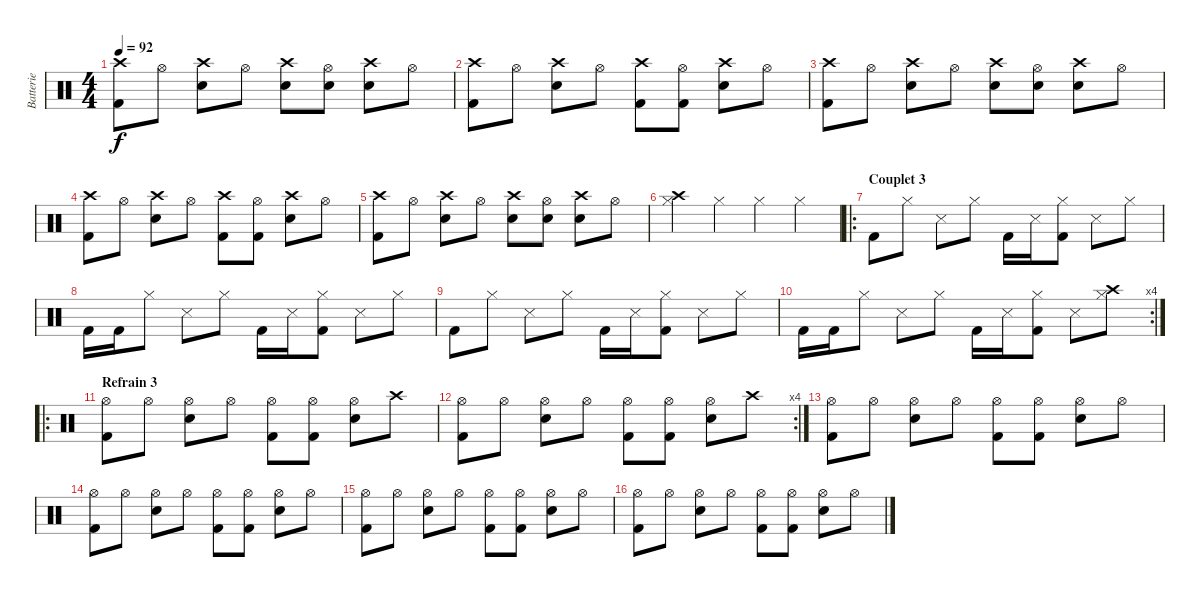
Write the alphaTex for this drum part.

\track ("Batterie" "Batterie") {instrument percussion}
\staff {score}
\articulation defaults
\ts (4 4)
\tempo 92
\clef neutral
\ks c
("Crash high (hit)" "Kick (hit) 2").8{dy f} "Hi-Hat (open)".8 ("Crash high (hit)" "Electric Snare (hit)").8 "Hi-Hat (open)".8 ("Crash high (hit)" "Electric Snare (hit)").8 ("Hi-Hat (open)" "Electric Snare (hit)").8 ("Crash high (hit)" "Electric Snare (hit)").8 "Hi-Hat (open)".8 |
("Crash high (hit)" "Kick (hit) 2").8 "Hi-Hat (open)".8 ("Crash high (hit)" "Electric Snare (hit)").8 "Hi-Hat (open)".8 ("Crash high (hit)" "Kick (hit) 2").8 ("Hi-Hat (open)" "Kick (hit) 2").8 ("Crash high (hit)" "Electric Snare (hit)").8 "Hi-Hat (open)".8 |
("Crash high (hit)" "Kick (hit) 2").8 "Hi-Hat (open)".8 ("Crash high (hit)" "Electric Snare (hit)").8 "Hi-Hat (open)".8 ("Crash high (hit)" "Electric Snare (hit)").8 ("Hi-Hat (open)" "Electric Snare (hit)").8 ("Crash high (hit)" "Electric Snare (hit)").8 "Hi-Hat (open)".8 |
("Crash high (hit)" "Kick (hit) 2").8 "Hi-Hat (open)".8 ("Crash high (hit)" "Electric Snare (hit)").8 "Hi-Hat (open)".8 ("Crash high (hit)" "Kick (hit) 2").8 ("Hi-Hat (open)" "Kick (hit) 2").8 ("Crash high (hit)" "Electric Snare (hit)").8 "Hi-Hat (open)".8 |
("Crash high (hit)" "Kick (hit) 2").8 "Hi-Hat (open)".8 ("Crash high (hit)" "Electric Snare (hit)").8 "Hi-Hat (open)".8 ("Crash high (hit)" "Electric Snare (hit)").8 ("Hi-Hat (open)" "Electric Snare (hit)").8 ("Crash high (hit)" "Electric Snare (hit)").8 "Hi-Hat (open)".8 |
("Crash high (hit)" "Hi-Hat (closed)").4 "Hi-Hat (closed)".4 "Hi-Hat (closed)".4 "Hi-Hat (closed)".4 |
\ro
\section ("" "Couplet 3")
"Kick (hit) 2".8 "Hi-Hat (closed)".8 "Snare (side stick) 3".8 "Hi-Hat (closed)".8 "Kick (hit) 2".16 "Snare (side stick) 3".16 ("Hi-Hat (closed)" "Kick (hit) 2").8 "Snare (side stick) 3".8 "Hi-Hat (closed)".8 |
"Kick (hit) 2".16 "Kick (hit) 2".16 "Hi-Hat (closed)".8 "Snare (side stick) 3".8 "Hi-Hat (closed)".8 "Kick (hit) 2".16 "Snare (side stick) 3".16 ("Hi-Hat (closed)" "Kick (hit) 2").8 "Snare (side stick) 3".8 "Hi-Hat (closed)".8 |
"Kick (hit) 2".8 "Hi-Hat (closed)".8 "Snare (side stick) 3".8 "Hi-Hat (closed)".8 "Kick (hit) 2".16 "Snare (side stick) 3".16 ("Hi-Hat (closed)" "Kick (hit) 2").8 "Snare (side stick) 3".8 "Hi-Hat (closed)".8 |
\rc 4 "Kick (hit) 2".16 "Kick (hit) 2".16 "Hi-Hat (closed)".8 "Snare (side stick) 3".8 "Hi-Hat (closed)".8 "Kick (hit) 2".16 "Snare (side stick) 3".16
("Hi-Hat (closed)" "Kick (hit) 2").8 "Snare (side stick) 3".8 ("Crash high (hit)" "Hi-Hat (closed)").8 |
\ro
\section ("" "Refrain 3")
("Hi-Hat (open)" "Kick (hit) 2").8 "Hi-Hat (open)".8 ("Hi-Hat (open)" "Electric Snare (hit)").8 "Hi-Hat (open)".8 ("Hi-Hat (open)" "Kick (hit) 2").8 ("Hi-Hat (open)" "Kick (hit) 2").8 ("Hi-Hat (open)" "Electric Snare (hit)").8 "Crash high (hit)".8 |
\rc 4
("Hi-Hat (open)" "Kick (hit) 2").8 "Hi-Hat (open)".8 ("Hi-Hat (open)" "Electric Snare (hit)").8 "Hi-Hat (open)".8 ("Hi-Hat (open)" "Kick (hit) 2").8 ("Hi-Hat (open)" "Kick (hit) 2").8 ("Hi-Hat (open)" "Electric Snare (hit)").8 "Crash high (hit)".8 |
("Hi-Hat (open)" "Kick (hit) 2").8 "Hi-Hat (open)".8 ("Hi-Hat (open)" "Electric Snare (hit)").8 "Hi-Hat (open)".8 ("Hi-Hat (open)" "Kick (hit) 2").8 ("Hi-Hat (open)" "Kick (hit) 2").8 ("Hi-Hat (open)" "Electric Snare (hit)").8 "Hi-Hat (open)".8 |
("Hi-Hat (open)" "Kick (hit) 2").8 "Hi-Hat (open)".8 ("Hi-Hat (open)" "Electric Snare (hit)").8 "Hi-Hat (open)".8 ("Hi-Hat (open)" "Kick (hit) 2").8 ("Hi-Hat (open)" "Kick (hit) 2").8 ("Hi-Hat (open)" "Electric Snare (hit)").8 "Hi-Hat (open)".8 |
("Hi-Hat (open)" "Kick (hit) 2").8 "Hi-Hat (open)".8 ("Hi-Hat (open)" "Electric Snare (hit)").8 "Hi-Hat (open)".8 ("Hi-Hat (open)" "Kick (hit) 2").8 ("Hi-Hat (open)" "Kick (hit) 2").8 ("Hi-Hat (open)" "Electric Snare (hit)").8 "Hi-Hat (open)".8 |
("Hi-Hat (open)" "Kick (hit) 2").8 "Hi-Hat (open)".8 ("Hi-Hat (open)" "Electric Snare (hit)").8 "Hi-Hat (open)".8 ("Hi-Hat (open)" "Kick (hit) 2").8 ("Hi-Hat (open)" "Kick (hit) 2").8 ("Hi-Hat (open)" "Electric Snare (hit)").8 "Hi-Hat (open)".8
